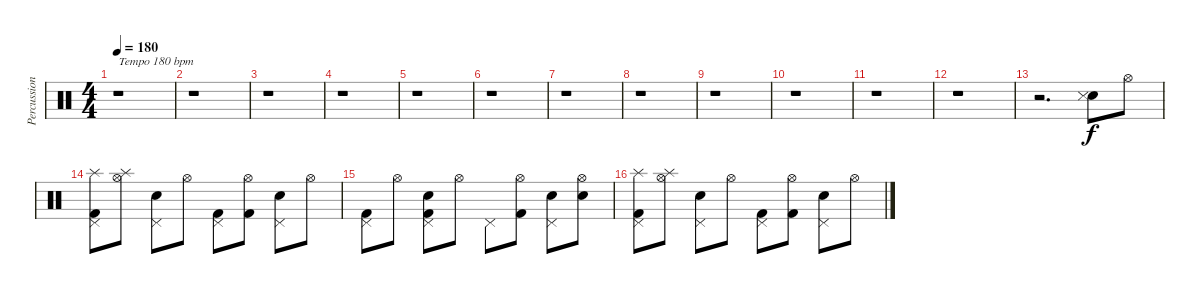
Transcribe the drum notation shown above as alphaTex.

\track ("Percussion" "Percussion") {instrument percussion}
\staff {score}
\articulation defaults
\ts (4 4)
\tempo 180
\clef neutral
\ks c
r.1{txt "Tempo 180 bpm" dy f} |
r.1 |
r.1 |
r.1 |
r.1 |
r.1 |
r.1 |
r.1 |
r.1 |
r.1 |
r.1 |
r.1 |
r.2{d} ("Snare (hit) 2" "Snare (side stick) 3").8 "Hi-Hat (open)".8 |
("Pedal Hi-Hat (hit)" "Splash (hit)" "Kick (hit) 2").8 ("Hi-Hat (open)" "Splash (hit)").8 ("Pedal Hi-Hat (hit)" "Snare (hit) 2").8 "Hi-Hat (open)".8 ("Pedal Hi-Hat (hit)" "Kick (hit) 2").8 ("Hi-Hat (open)" "Kick (hit) 2").8 ("Pedal Hi-Hat (hit)" "Snare (hit) 2").8 "Hi-Hat (open)".8 |
("Pedal Hi-Hat (hit)" "Kick (hit) 2").8 "Hi-Hat (open)".8 ("Pedal Hi-Hat (hit)" "Snare (hit) 2" "Kick (hit) 2").8 "Hi-Hat (open)".8 "Pedal Hi-Hat (hit)".8 ("Hi-Hat (open)" "Kick (hit) 2").8 ("Pedal Hi-Hat (hit)" "Snare (hit) 2").8 ("Hi-Hat (open)" "Snare (hit) 2").8 |
("Pedal Hi-Hat (hit)" "Splash (hit)" "Kick (hit) 2").8 ("Hi-Hat (open)" "Splash (hit)").8 ("Pedal Hi-Hat (hit)" "Snare (hit) 2").8 "Hi-Hat (open)".8 ("Pedal Hi-Hat (hit)" "Kick (hit) 2").8 ("Hi-Hat (open)" "Kick (hit) 2").8 ("Pedal Hi-Hat (hit)" "Snare (hit) 2").8 "Hi-Hat (open)".8
